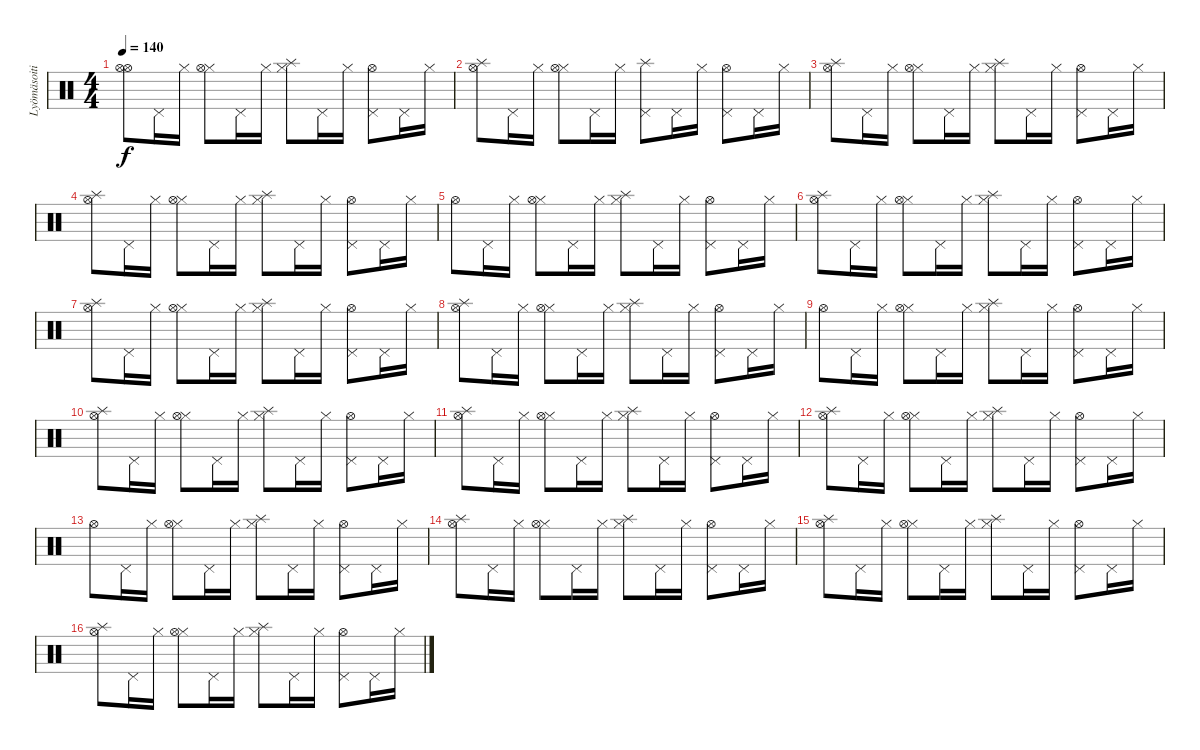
\track ("Lyömäsoitin" "Lyömäsoiti") {instrument percussion}
\staff {score}
\articulation defaults
\ts (4 4)
\tempo 140
\clef neutral
\ks c
("Hi-Hat (open)" "Hi-Hat (open)").8{dy f volume 14} "Pedal Hi-Hat (hit)".16 "Hi-Hat (closed)".16 ("Hi-Hat (closed)" "Hi-Hat (open)").8 "Pedal Hi-Hat (hit)".16 "Hi-Hat (closed)".16 ("Hi-Hat (closed)" "Splash (hit)").8 "Pedal Hi-Hat (hit)".16 "Hi-Hat (closed)".16 ("Pedal Hi-Hat (hit)" "Hi-Hat (open)").8 "Pedal Hi-Hat (hit)".16 "Hi-Hat (closed)".16 |
("Hi-Hat (open)" "Splash (hit)").8 "Pedal Hi-Hat (hit)".16 "Hi-Hat (closed)".16 ("Hi-Hat (closed)" "Hi-Hat (open)").8 "Pedal Hi-Hat (hit)".16 "Hi-Hat (closed)".16 ("Pedal Hi-Hat (hit)" "Splash (hit)").8 "Pedal Hi-Hat (hit)".16 "Hi-Hat (closed)".16 ("Pedal Hi-Hat (hit)" "Hi-Hat (open)").8 "Pedal Hi-Hat (hit)".16 "Hi-Hat (closed)".16 |
("Hi-Hat (open)" "Splash (hit)").8 "Pedal Hi-Hat (hit)".16 "Hi-Hat (closed)".16 ("Hi-Hat (closed)" "Hi-Hat (open)").8 "Pedal Hi-Hat (hit)".16 "Hi-Hat (closed)".16 ("Hi-Hat (closed)" "Splash (hit)").8 "Pedal Hi-Hat (hit)".16 "Hi-Hat (closed)".16 ("Pedal Hi-Hat (hit)" "Hi-Hat (open)").8 "Pedal Hi-Hat (hit)".16 "Hi-Hat (closed)".16 |
("Hi-Hat (open)" "Splash (hit)").8 "Pedal Hi-Hat (hit)".16 "Hi-Hat (closed)".16 ("Hi-Hat (closed)" "Hi-Hat (open)").8 "Pedal Hi-Hat (hit)".16 "Hi-Hat (closed)".16 ("Hi-Hat (closed)" "Splash (hit)").8 "Pedal Hi-Hat (hit)".16 "Hi-Hat (closed)".16 ("Pedal Hi-Hat (hit)" "Hi-Hat (open)").8 "Pedal Hi-Hat (hit)".16 "Hi-Hat (closed)".16 |
"Hi-Hat (open)".8 "Pedal Hi-Hat (hit)".16 "Hi-Hat (closed)".16 ("Hi-Hat (closed)" "Hi-Hat (open)").8 "Pedal Hi-Hat (hit)".16 "Hi-Hat (closed)".16 ("Hi-Hat (closed)" "Splash (hit)").8 "Pedal Hi-Hat (hit)".16 "Hi-Hat (closed)".16 ("Pedal Hi-Hat (hit)" "Hi-Hat (open)").8 "Pedal Hi-Hat (hit)".16 "Hi-Hat (closed)".16 |
("Hi-Hat (open)" "Splash (hit)").8 "Pedal Hi-Hat (hit)".16 "Hi-Hat (closed)".16 ("Hi-Hat (closed)" "Hi-Hat (open)").8 "Pedal Hi-Hat (hit)".16 "Hi-Hat (closed)".16 ("Hi-Hat (closed)" "Splash (hit)").8 "Pedal Hi-Hat (hit)".16 "Hi-Hat (closed)".16 ("Pedal Hi-Hat (hit)" "Hi-Hat (open)").8 "Pedal Hi-Hat (hit)".16 "Hi-Hat (closed)".16 |
("Hi-Hat (open)" "Splash (hit)").8 "Pedal Hi-Hat (hit)".16 "Hi-Hat (closed)".16 ("Hi-Hat (closed)" "Hi-Hat (open)").8 "Pedal Hi-Hat (hit)".16 "Hi-Hat (closed)".16 ("Hi-Hat (closed)" "Splash (hit)").8 "Pedal Hi-Hat (hit)".16 "Hi-Hat (closed)".16 ("Pedal Hi-Hat (hit)" "Hi-Hat (open)").8 "Pedal Hi-Hat (hit)".16 "Hi-Hat (closed)".16 |
("Hi-Hat (open)" "Splash (hit)").8 "Pedal Hi-Hat (hit)".16 "Hi-Hat (closed)".16 ("Hi-Hat (closed)" "Hi-Hat (open)").8 "Pedal Hi-Hat (hit)".16 "Hi-Hat (closed)".16 ("Hi-Hat (closed)" "Splash (hit)").8 "Pedal Hi-Hat (hit)".16 "Hi-Hat (closed)".16 ("Pedal Hi-Hat (hit)" "Hi-Hat (open)").8 "Pedal Hi-Hat (hit)".16 "Hi-Hat (closed)".16 |
"Hi-Hat (open)".8 "Pedal Hi-Hat (hit)".16 "Hi-Hat (closed)".16 ("Hi-Hat (closed)" "Hi-Hat (open)").8 "Pedal Hi-Hat (hit)".16 "Hi-Hat (closed)".16 ("Hi-Hat (closed)" "Splash (hit)").8 "Pedal Hi-Hat (hit)".16 "Hi-Hat (closed)".16 ("Pedal Hi-Hat (hit)" "Hi-Hat (open)").8 "Pedal Hi-Hat (hit)".16 "Hi-Hat (closed)".16 |
("Hi-Hat (open)" "Splash (hit)").8 "Pedal Hi-Hat (hit)".16 "Hi-Hat (closed)".16 ("Hi-Hat (closed)" "Hi-Hat (open)").8 "Pedal Hi-Hat (hit)".16 "Hi-Hat (closed)".16 ("Hi-Hat (closed)" "Splash (hit)").8 "Pedal Hi-Hat (hit)".16 "Hi-Hat (closed)".16 ("Pedal Hi-Hat (hit)" "Hi-Hat (open)").8 "Pedal Hi-Hat (hit)".16 "Hi-Hat (closed)".16 |
("Hi-Hat (open)" "Splash (hit)").8 "Pedal Hi-Hat (hit)".16 "Hi-Hat (closed)".16 ("Hi-Hat (closed)" "Hi-Hat (open)").8 "Pedal Hi-Hat (hit)".16 "Hi-Hat (closed)".16 ("Hi-Hat (closed)" "Splash (hit)").8 "Pedal Hi-Hat (hit)".16 "Hi-Hat (closed)".16 ("Pedal Hi-Hat (hit)" "Hi-Hat (open)").8 "Pedal Hi-Hat (hit)".16 "Hi-Hat (closed)".16 |
("Hi-Hat (open)" "Splash (hit)").8 "Pedal Hi-Hat (hit)".16 "Hi-Hat (closed)".16 ("Hi-Hat (closed)" "Hi-Hat (open)").8 "Pedal Hi-Hat (hit)".16 "Hi-Hat (closed)".16 ("Hi-Hat (closed)" "Splash (hit)").8 "Pedal Hi-Hat (hit)".16 "Hi-Hat (closed)".16 ("Pedal Hi-Hat (hit)" "Hi-Hat (open)").8 "Pedal Hi-Hat (hit)".16 "Hi-Hat (closed)".16 |
"Hi-Hat (open)".8 "Pedal Hi-Hat (hit)".16 "Hi-Hat (closed)".16 ("Hi-Hat (closed)" "Hi-Hat (open)").8 "Pedal Hi-Hat (hit)".16 "Hi-Hat (closed)".16 ("Hi-Hat (closed)" "Splash (hit)").8 "Pedal Hi-Hat (hit)".16 "Hi-Hat (closed)".16 ("Pedal Hi-Hat (hit)" "Hi-Hat (open)").8 "Pedal Hi-Hat (hit)".16 "Hi-Hat (closed)".16 |
("Hi-Hat (open)" "Splash (hit)").8 "Pedal Hi-Hat (hit)".16 "Hi-Hat (closed)".16 ("Hi-Hat (closed)" "Hi-Hat (open)").8 "Pedal Hi-Hat (hit)".16 "Hi-Hat (closed)".16 ("Hi-Hat (closed)" "Splash (hit)").8 "Pedal Hi-Hat (hit)".16 "Hi-Hat (closed)".16 ("Pedal Hi-Hat (hit)" "Hi-Hat (open)").8 "Pedal Hi-Hat (hit)".16 "Hi-Hat (closed)".16 |
("Hi-Hat (open)" "Splash (hit)").8 "Pedal Hi-Hat (hit)".16 "Hi-Hat (closed)".16 ("Hi-Hat (closed)" "Hi-Hat (open)").8 "Pedal Hi-Hat (hit)".16 "Hi-Hat (closed)".16 ("Hi-Hat (closed)" "Splash (hit)").8 "Pedal Hi-Hat (hit)".16 "Hi-Hat (closed)".16 ("Pedal Hi-Hat (hit)" "Hi-Hat (open)").8 "Pedal Hi-Hat (hit)".16 "Hi-Hat (closed)".16 |
("Hi-Hat (open)" "Splash (hit)").8 "Pedal Hi-Hat (hit)".16 "Hi-Hat (closed)".16 ("Hi-Hat (closed)" "Hi-Hat (open)").8 "Pedal Hi-Hat (hit)".16 "Hi-Hat (closed)".16 ("Hi-Hat (closed)" "Splash (hit)").8 "Pedal Hi-Hat (hit)".16 "Hi-Hat (closed)".16 ("Pedal Hi-Hat (hit)" "Hi-Hat (open)").8 "Pedal Hi-Hat (hit)".16 "Hi-Hat (closed)".16
